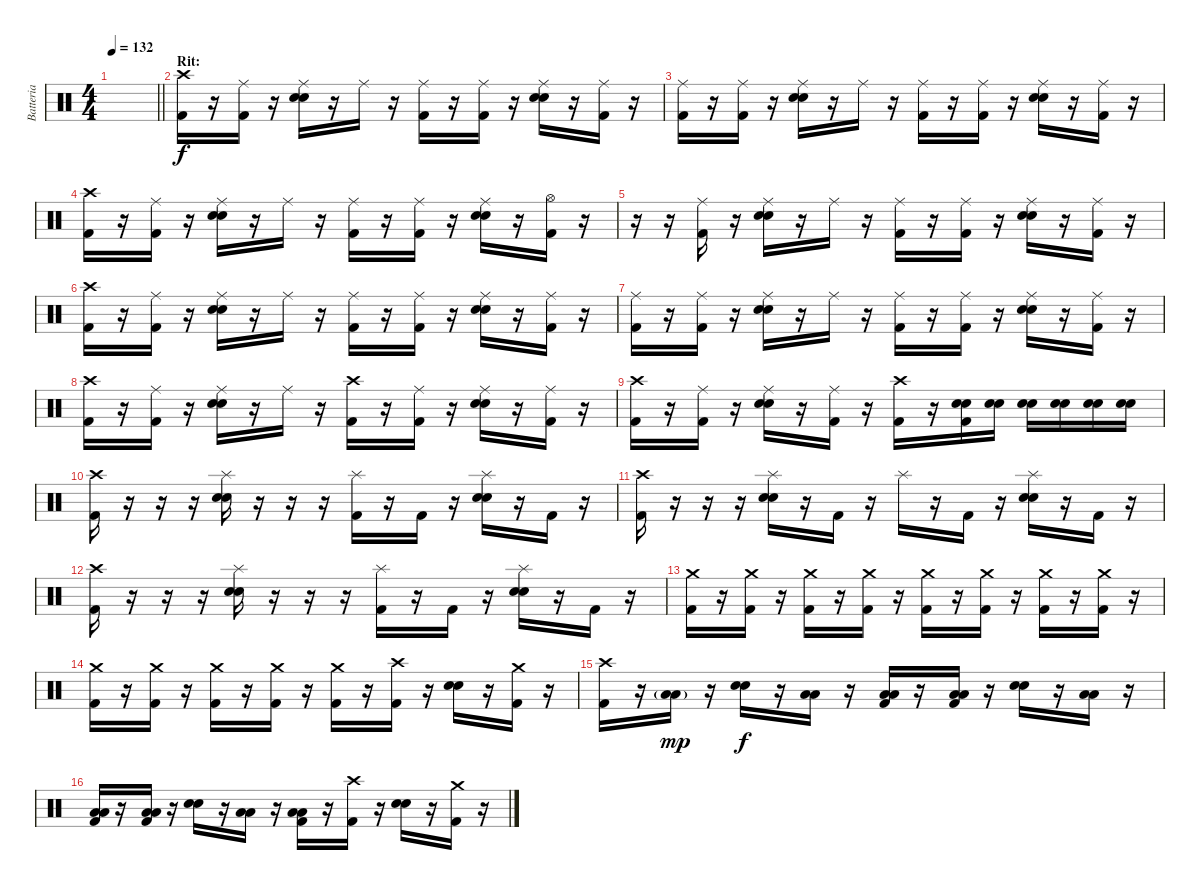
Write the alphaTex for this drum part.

\track ("Batteria" "Batteria") {instrument percussion}
\staff {score}
\articulation defaults
\ts (4 4)
\tempo 132
\clef neutral
\barLineRight lightlight
\ks c
|
\section ("" "Rit:")
("Kick (hit) 2" "Crash high (hit)").16 r.16 ("Kick (hit) 2" "Ride (middle)").16 r.16 ("Snare (hit) 2" "Snare (hit) 2" "Ride (middle)").16 r.16 "Ride (middle)".16 r.16 ("Kick (hit) 2" "Ride (middle)").16 r.16 ("Kick (hit) 2" "Ride (middle)").16 r.16 ("Snare (hit) 2" "Snare (hit) 2" "Ride (middle)").16 r.16 ("Kick (hit) 2" "Ride (middle)").16 r.16 |
("Kick (hit) 2" "Ride (middle)").16 r.16 ("Kick (hit) 2" "Ride (middle)").16 r.16 ("Snare (hit) 2" "Snare (hit) 2" "Ride (middle)").16 r.16 "Ride (middle)".16 r.16 ("Kick (hit) 2" "Ride (middle)").16 r.16 ("Kick (hit) 2" "Ride (middle)").16 r.16 ("Snare (hit) 2" "Snare (hit) 2" "Ride (middle)").16 r.16 ("Kick (hit) 2" "Ride (middle)").16 r.16 |
("Kick (hit) 2" "Crash high (hit)").16 r.16 ("Kick (hit) 2" "Ride (middle)").16 r.16 ("Snare (hit) 2" "Snare (hit) 2" "Ride (middle)").16 r.16 "Ride (middle)".16 r.16 ("Kick (hit) 2" "Ride (middle)").16 r.16 ("Kick (hit) 2" "Ride (middle)").16 r.16 ("Snare (hit) 2" "Snare (hit) 2" "Ride (middle)").16 r.16 ("Kick (hit) 2" "Hi-Hat (open)").16 r.16 |
r.16 r.16 ("Kick (hit) 2" "Ride (middle)").16 r.16 ("Snare (hit) 2" "Snare (hit) 2" "Ride (middle)").16 r.16 "Ride (middle)".16 r.16 ("Kick (hit) 2" "Ride (middle)").16 r.16 ("Kick (hit) 2" "Ride (middle)").16 r.16 ("Snare (hit) 2" "Snare (hit) 2" "Ride (middle)").16 r.16 ("Kick (hit) 2" "Ride (middle)").16 r.16 |
("Kick (hit) 2" "Crash high (hit)").16 r.16 ("Kick (hit) 2" "Ride (middle)").16 r.16 ("Snare (hit) 2" "Snare (hit) 2" "Ride (middle)").16 r.16 "Ride (middle)".16 r.16 ("Kick (hit) 2" "Ride (middle)").16 r.16 ("Kick (hit) 2" "Ride (middle)").16 r.16 ("Snare (hit) 2" "Snare (hit) 2" "Ride (middle)").16 r.16 ("Kick (hit) 2" "Ride (middle)").16 r.16 |
("Kick (hit) 2" "Ride (middle)").16 r.16 ("Kick (hit) 2" "Ride (middle)").16 r.16 ("Snare (hit) 2" "Snare (hit) 2" "Ride (middle)").16 r.16 "Ride (middle)".16 r.16 ("Kick (hit) 2" "Ride (middle)").16 r.16 ("Kick (hit) 2" "Ride (middle)").16 r.16 ("Snare (hit) 2" "Snare (hit) 2" "Ride (middle)").16 r.16 ("Kick (hit) 2" "Ride (middle)").16 r.16 |
("Kick (hit) 2" "Crash high (hit)").16 r.16 ("Kick (hit) 2" "Ride (middle)").16 r.16 ("Snare (hit) 2" "Snare (hit) 2" "Ride (middle)").16 r.16 "Ride (middle)".16 r.16 ("Kick (hit) 2" "Crash high (hit)").16 r.16 ("Kick (hit) 2" "Ride (middle)").16 r.16 ("Snare (hit) 2" "Snare (hit) 2" "Ride (middle)").16 r.16 ("Kick (hit) 2" "Ride (middle)").16 r.16 |
("Kick (hit) 2" "Crash high (hit)").16 r.16 ("Kick (hit) 2" "Ride (middle)").16 r.16 ("Snare (hit) 2" "Snare (hit) 2" "Ride (middle)").16 r.16 ("Kick (hit) 2" "Ride (middle)").16 r.16 ("Kick (hit) 2" "Crash high (hit)").16 r.16 ("Kick (hit) 2" "Snare (hit) 2" "Snare (hit) 2").16 ("Snare (hit) 2" "Snare (hit) 2").16 ("Snare (hit) 2" "Snare (hit) 2").16 ("Snare (hit) 2" "Snare (hit) 2").16 ("Snare (hit) 2" "Snare (hit) 2").16 ("Snare (hit) 2" "Snare (hit) 2").16 |
("Kick (hit) 2" "Crash high (hit)").16 r.16 r.16 r.16 ("Snare (hit) 2" "Snare (hit) 2" "Splash (hit)").16 r.16 r.16 r.16 ("Kick (hit) 2" "Splash (hit)").16 r.16 "Kick (hit) 2".16 r.16 ("Snare (hit) 2" "Snare (hit) 2" "Splash (hit)").16 r.16 "Kick (hit) 2".16 r.16 |
("Kick (hit) 2" "Crash high (hit)").16 r.16 r.16 r.16 ("Snare (hit) 2" "Snare (hit) 2" "Splash (hit)").16 r.16 "Kick (hit) 2".16 r.16 "Splash (hit)".16 r.16 "Kick (hit) 2".16 r.16 ("Snare (hit) 2" "Snare (hit) 2" "Splash (hit)").16 r.16 "Kick (hit) 2".16 r.16 |
("Kick (hit) 2" "Crash high (hit)").16 r.16 r.16 r.16 ("Snare (hit) 2" "Snare (hit) 2" "Splash (hit)").16 r.16 r.16 r.16 ("Kick (hit) 2" "Splash (hit)").16 r.16 "Kick (hit) 2".16 r.16 ("Snare (hit) 2" "Snare (hit) 2" "Splash (hit)").16 r.16 "Kick (hit) 2".16 r.16 |
("Kick (hit) 2" "Crash medium (hit)").16 r.16 ("Kick (hit) 2" "Crash medium (hit)").16 r.16 ("Kick (hit) 2" "Crash medium (hit)").16 r.16 ("Kick (hit) 2" "Crash medium (hit)").16 r.16 ("Kick (hit) 2" "Crash medium (hit)").16 r.16 ("Kick (hit) 2" "Crash medium (hit)").16 r.16 ("Kick (hit) 2" "Crash medium (hit)").16 r.16 ("Kick (hit) 2" "Crash medium (hit)").16 r.16 |
("Kick (hit) 2" "Crash medium (hit)").16 r.16 ("Kick (hit) 2" "Crash medium (hit)").16 r.16 ("Kick (hit) 2" "Crash medium (hit)").16 r.16 ("Kick (hit) 2" "Crash medium (hit)").16 r.16 ("Kick (hit) 2" "Crash medium (hit)").16 r.16 ("Kick (hit) 2" "Crash high (hit)").16 r.16 ("Snare (hit) 2" "Snare (hit) 2").16 r.16 ("Kick (hit) 2" "Crash medium (hit)").16 r.16 |
("Kick (hit) 2" "Crash high (hit)").16 r.16 ("Low Floor Tom (hit)"{g} "Low Floor Tom (hit)"{g}).16{dy mp} r.16 ("Snare (hit) 2" "Snare (hit) 2").16{dy f} r.16 ("Low Floor Tom (hit)" "Low Floor Tom (hit)").16 r.16 ("Kick (hit) 2" "Low Floor Tom (hit)" "Low Floor Tom (hit)").16 r.16 ("Kick (hit) 2" "Low Floor Tom (hit)" "Low Floor Tom (hit)").16 r.16 ("Snare (hit) 2" "Snare (hit) 2").16 r.16 ("Low Floor Tom (hit)" "Low Floor Tom (hit)").16 r.16 |
("Kick (hit) 2" "Low Floor Tom (hit)" "Low Floor Tom (hit)").16 r.16 ("Kick (hit) 2" "Low Floor Tom (hit)" "Low Floor Tom (hit)").16 r.16 ("Snare (hit) 2" "Snare (hit) 2").16 r.16 ("Low Floor Tom (hit)" "Low Floor Tom (hit)").16 r.16 ("Kick (hit) 2" "Low Floor Tom (hit)" "Low Floor Tom (hit)").16 r.16 ("Kick (hit) 2" "Crash high (hit)").16 r.16 ("Snare (hit) 2" "Snare (hit) 2").16 r.16 ("Kick (hit) 2" "Crash medium (hit)").16 r.16
